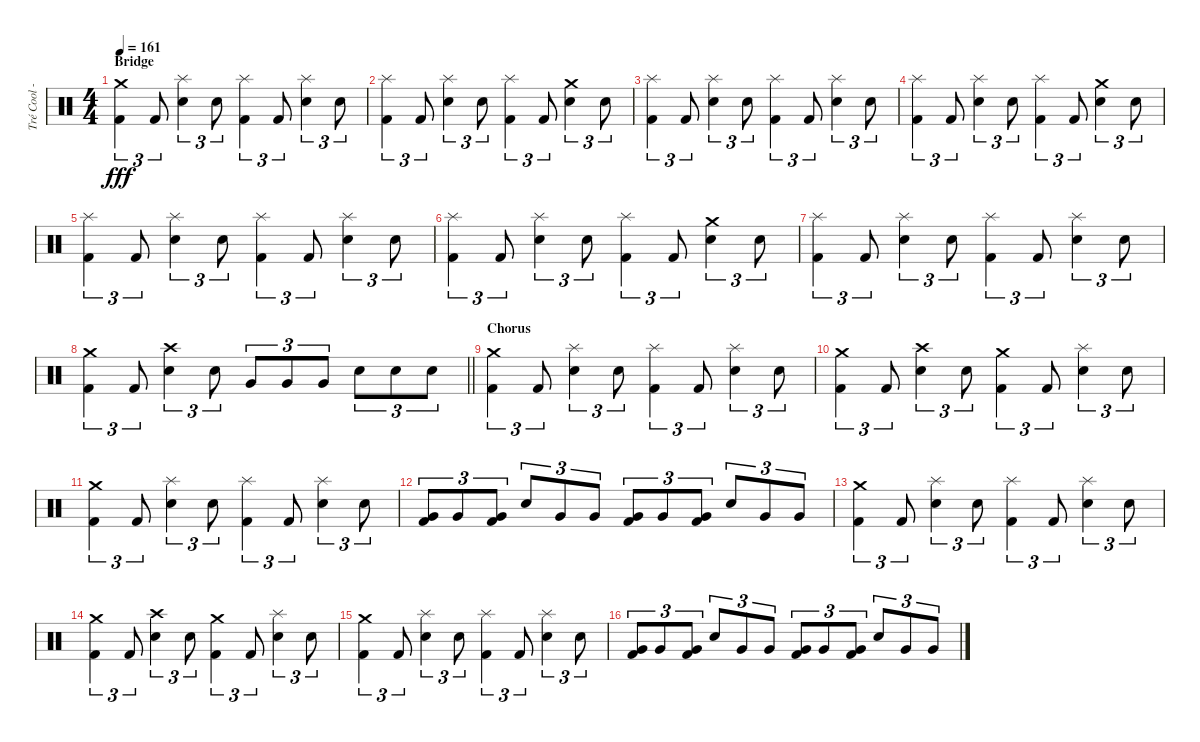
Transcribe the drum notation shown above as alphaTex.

\track ("Tré Cool - Drums" "Tré Cool -") {instrument percussion}
\staff {score}
\articulation defaults
\ts (4 4)
\section ("" "Bridge")
\tempo 161
\clef neutral
\ks c
("Crash medium (hit)" "Kick (hit) 2").4{tu (3 2) dy fff} "Kick (hit) 2".8{tu (3 2)} ("Splash (hit)" "Electric Snare (hit)").4{tu (3 2)} "Electric Snare (hit)".8{tu (3 2)} ("Splash (hit)" "Kick (hit) 2").4{tu (3 2)} "Kick (hit) 2".8{tu (3 2)} ("Splash (hit)" "Electric Snare (hit)").4{tu (3 2)} "Electric Snare (hit)".8{tu (3 2)} |
("Splash (hit)" "Kick (hit) 2").4{tu (3 2)} "Kick (hit) 2".8{tu (3 2)} ("Splash (hit)" "Electric Snare (hit)").4{tu (3 2)} "Electric Snare (hit)".8{tu (3 2)} ("Splash (hit)" "Kick (hit) 2").4{tu (3 2)} "Kick (hit) 2".8{tu (3 2)} ("Crash medium (hit)" "Electric Snare (hit)").4{tu (3 2)} "Electric Snare (hit)".8{tu (3 2)} |
("Splash (hit)" "Kick (hit) 2").4{tu (3 2)} "Kick (hit) 2".8{tu (3 2)} ("Splash (hit)" "Electric Snare (hit)").4{tu (3 2)} "Electric Snare (hit)".8{tu (3 2)} ("Splash (hit)" "Kick (hit) 2").4{tu (3 2)} "Kick (hit) 2".8{tu (3 2)} ("Splash (hit)" "Electric Snare (hit)").4{tu (3 2)} "Electric Snare (hit)".8{tu (3 2)} |
("Splash (hit)" "Kick (hit) 2").4{tu (3 2)} "Kick (hit) 2".8{tu (3 2)} ("Splash (hit)" "Electric Snare (hit)").4{tu (3 2)} "Electric Snare (hit)".8{tu (3 2)} ("Splash (hit)" "Kick (hit) 2").4{tu (3 2)} "Kick (hit) 2".8{tu (3 2)} ("Crash medium (hit)" "Electric Snare (hit)").4{tu (3 2)} "Electric Snare (hit)".8{tu (3 2)} |
("Splash (hit)" "Kick (hit) 2").4{tu (3 2)} "Kick (hit) 2".8{tu (3 2)} ("Splash (hit)" "Electric Snare (hit)").4{tu (3 2)} "Electric Snare (hit)".8{tu (3 2)} ("Splash (hit)" "Kick (hit) 2").4{tu (3 2)} "Kick (hit) 2".8{tu (3 2)} ("Splash (hit)" "Electric Snare (hit)").4{tu (3 2)} "Electric Snare (hit)".8{tu (3 2)} |
("Splash (hit)" "Kick (hit) 2").4{tu (3 2)} "Kick (hit) 2".8{tu (3 2)} ("Splash (hit)" "Electric Snare (hit)").4{tu (3 2)} "Electric Snare (hit)".8{tu (3 2)} ("Splash (hit)" "Kick (hit) 2").4{tu (3 2)} "Kick (hit) 2".8{tu (3 2)} ("Crash medium (hit)" "Electric Snare (hit)").4{tu (3 2)} "Electric Snare (hit)".8{tu (3 2)} |
("Splash (hit)" "Kick (hit) 2").4{tu (3 2)} "Kick (hit) 2".8{tu (3 2)} ("Splash (hit)" "Electric Snare (hit)").4{tu (3 2)} "Electric Snare (hit)".8{tu (3 2)} ("Splash (hit)" "Kick (hit) 2").4{tu (3 2)} "Kick (hit) 2".8{tu (3 2)} ("Splash (hit)" "Electric Snare (hit)").4{tu (3 2)} "Electric Snare (hit)".8{tu (3 2)} |
\barLineRight lightlight
("Crash medium (hit)" "Kick (hit) 2").4{tu (3 2)} "Kick (hit) 2".8{tu (3 2)} ("Crash high (hit)" "Electric Snare (hit)").4{tu (3 2)} "Electric Snare (hit)".8{tu (3 2)} "Very Low Tom (hit)".8{tu (3 2)} "Very Low Tom (hit)".8{tu (3 2)} "Very Low Tom (hit)".8{tu (3 2)} "Electric Snare (hit)".8{tu (3 2)} "Electric Snare (hit)".8{tu (3 2)} "Electric Snare (hit)".8{tu (3 2)} |
\section ("" "Chorus")
("Crash medium (hit)" "Kick (hit) 2").4{tu (3 2)} "Kick (hit) 2".8{tu (3 2)} ("Splash (hit)" "Electric Snare (hit)").4{tu (3 2)} "Electric Snare (hit)".8{tu (3 2)} ("Splash (hit)" "Kick (hit) 2").4{tu (3 2)} "Kick (hit) 2".8{tu (3 2)} ("Splash (hit)" "Electric Snare (hit)").4{tu (3 2)} "Electric Snare (hit)".8{tu (3 2)} |
("Crash medium (hit)" "Kick (hit) 2").4{tu (3 2)} "Kick (hit) 2".8{tu (3 2)} ("Crash high (hit)" "Electric Snare (hit)").4{tu (3 2)} "Electric Snare (hit)".8{tu (3 2)} ("Crash medium (hit)" "Kick (hit) 2").4{tu (3 2)} "Kick (hit) 2".8{tu (3 2)} ("Splash (hit)" "Electric Snare (hit)").4{tu (3 2)} "Electric Snare (hit)".8{tu (3 2)} |
("Crash medium (hit)" "Kick (hit) 2").4{tu (3 2)} "Kick (hit) 2".8{tu (3 2)} ("Splash (hit)" "Electric Snare (hit)").4{tu (3 2)} "Electric Snare (hit)".8{tu (3 2)} ("Splash (hit)" "Kick (hit) 2").4{tu (3 2)} "Kick (hit) 2".8{tu (3 2)} ("Splash (hit)" "Electric Snare (hit)").4{tu (3 2)} "Electric Snare (hit)".8{tu (3 2)} |
("Very Low Tom (hit)" "Kick (hit) 2").8{tu (3 2)} "Very Low Tom (hit)".8{tu (3 2)} ("Very Low Tom (hit)" "Kick (hit) 2").8{tu (3 2)} "Electric Snare (hit)".8{tu (3 2)} "Very Low Tom (hit)".8{tu (3 2)} "Very Low Tom (hit)".8{tu (3 2)} ("Very Low Tom (hit)" "Kick (hit) 2").8{tu (3 2)} "Very Low Tom (hit)".8{tu (3 2)} ("Very Low Tom (hit)" "Kick (hit) 2").8{tu (3 2)} "Electric Snare (hit)".8{tu (3 2)} "Very Low Tom (hit)".8{tu (3 2)} "Very Low Tom (hit)".8{tu (3 2)} |
("Crash medium (hit)" "Kick (hit) 2").4{tu (3 2)} "Kick (hit) 2".8{tu (3 2)} ("Splash (hit)" "Electric Snare (hit)").4{tu (3 2)} "Electric Snare (hit)".8{tu (3 2)} ("Splash (hit)" "Kick (hit) 2").4{tu (3 2)} "Kick (hit) 2".8{tu (3 2)} ("Splash (hit)" "Electric Snare (hit)").4{tu (3 2)} "Electric Snare (hit)".8{tu (3 2)} |
("Crash medium (hit)" "Kick (hit) 2").4{tu (3 2)} "Kick (hit) 2".8{tu (3 2)} ("Crash high (hit)" "Electric Snare (hit)").4{tu (3 2)} "Electric Snare (hit)".8{tu (3 2)} ("Crash medium (hit)" "Kick (hit) 2").4{tu (3 2)} "Kick (hit) 2".8{tu (3 2)} ("Splash (hit)" "Electric Snare (hit)").4{tu (3 2)} "Electric Snare (hit)".8{tu (3 2)} |
("Crash medium (hit)" "Kick (hit) 2").4{tu (3 2)} "Kick (hit) 2".8{tu (3 2)} ("Splash (hit)" "Electric Snare (hit)").4{tu (3 2)} "Electric Snare (hit)".8{tu (3 2)} ("Splash (hit)" "Kick (hit) 2").4{tu (3 2)} "Kick (hit) 2".8{tu (3 2)} ("Splash (hit)" "Electric Snare (hit)").4{tu (3 2)} "Electric Snare (hit)".8{tu (3 2)} |
("Very Low Tom (hit)" "Kick (hit) 2").8{tu (3 2)} "Very Low Tom (hit)".8{tu (3 2)} ("Very Low Tom (hit)" "Kick (hit) 2").8{tu (3 2)} "Electric Snare (hit)".8{tu (3 2)} "Very Low Tom (hit)".8{tu (3 2)} "Very Low Tom (hit)".8{tu (3 2)} ("Very Low Tom (hit)" "Kick (hit) 2").8{tu (3 2)} "Very Low Tom (hit)".8{tu (3 2)} ("Very Low Tom (hit)" "Kick (hit) 2").8{tu (3 2)} "Electric Snare (hit)".8{tu (3 2)} "Very Low Tom (hit)".8{tu (3 2)} "Very Low Tom (hit)".8{tu (3 2)}
